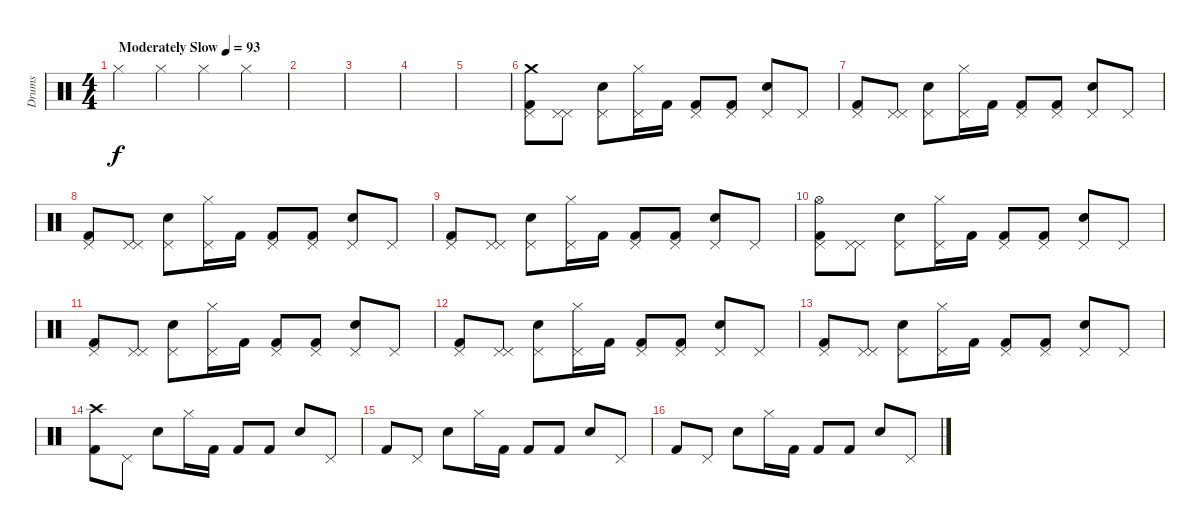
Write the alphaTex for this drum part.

\track ("Drums" "Drums") {instrument percussion}
\staff {score}
\articulation defaults
\ts (4 4)
\tempo (93 "Moderately Slow")
\clef neutral
\ks c "Hi-Hat (closed)".4{dy f} "Hi-Hat (closed)".4 "Hi-Hat (closed)".4 "Hi-Hat (closed)".4
|
|
|
|
|
("Crash medium (hit)" "Pedal Hi-Hat (hit)" "Kick (hit) 2").8 ("Pedal Hi-Hat (hit)" "Pedal Hi-Hat (hit)").8 ("Electric Snare (hit)" "Pedal Hi-Hat (hit)").8 ("Hi-Hat (closed)" "Pedal Hi-Hat (hit)").16 "Kick (hit) 2".16 ("Pedal Hi-Hat (hit)" "Kick (hit) 2").8 ("Pedal Hi-Hat (hit)" "Kick (hit) 2").8 ("Electric Snare (hit)" "Pedal Hi-Hat (hit)").8 "Pedal Hi-Hat (hit)".8 |
("Pedal Hi-Hat (hit)" "Kick (hit) 2").8 ("Pedal Hi-Hat (hit)" "Pedal Hi-Hat (hit)").8 ("Electric Snare (hit)" "Pedal Hi-Hat (hit)").8 ("Hi-Hat (closed)" "Pedal Hi-Hat (hit)").16 "Kick (hit) 2".16 ("Pedal Hi-Hat (hit)" "Kick (hit) 2").8 ("Pedal Hi-Hat (hit)" "Kick (hit) 2").8 ("Electric Snare (hit)" "Pedal Hi-Hat (hit)").8 "Pedal Hi-Hat (hit)".8 |
("Pedal Hi-Hat (hit)" "Kick (hit) 2").8 ("Pedal Hi-Hat (hit)" "Pedal Hi-Hat (hit)").8 ("Electric Snare (hit)" "Pedal Hi-Hat (hit)").8 ("Hi-Hat (closed)" "Pedal Hi-Hat (hit)").16 "Kick (hit) 2".16 ("Pedal Hi-Hat (hit)" "Kick (hit) 2").8 ("Pedal Hi-Hat (hit)" "Kick (hit) 2").8 ("Electric Snare (hit)" "Pedal Hi-Hat (hit)").8 "Pedal Hi-Hat (hit)".8 |
("Pedal Hi-Hat (hit)" "Kick (hit) 2").8 ("Pedal Hi-Hat (hit)" "Pedal Hi-Hat (hit)").8 ("Electric Snare (hit)" "Pedal Hi-Hat (hit)").8 ("Hi-Hat (closed)" "Pedal Hi-Hat (hit)").16 "Kick (hit) 2".16 ("Pedal Hi-Hat (hit)" "Kick (hit) 2").8 ("Pedal Hi-Hat (hit)" "Kick (hit) 2").8 ("Electric Snare (hit)" "Pedal Hi-Hat (hit)").8 "Pedal Hi-Hat (hit)".8 |
("Hi-Hat (open)" "Pedal Hi-Hat (hit)" "Kick (hit) 2").8 ("Pedal Hi-Hat (hit)" "Pedal Hi-Hat (hit)").8 ("Electric Snare (hit)" "Pedal Hi-Hat (hit)").8 ("Hi-Hat (closed)" "Pedal Hi-Hat (hit)").16 "Kick (hit) 2".16 ("Pedal Hi-Hat (hit)" "Kick (hit) 2").8 ("Pedal Hi-Hat (hit)" "Kick (hit) 2").8 ("Electric Snare (hit)" "Pedal Hi-Hat (hit)").8 "Pedal Hi-Hat (hit)".8 |
("Pedal Hi-Hat (hit)" "Kick (hit) 2").8 ("Pedal Hi-Hat (hit)" "Pedal Hi-Hat (hit)").8 ("Electric Snare (hit)" "Pedal Hi-Hat (hit)").8 ("Hi-Hat (closed)" "Pedal Hi-Hat (hit)").16 "Kick (hit) 2".16 ("Pedal Hi-Hat (hit)" "Kick (hit) 2").8 ("Pedal Hi-Hat (hit)" "Kick (hit) 2").8 ("Electric Snare (hit)" "Pedal Hi-Hat (hit)").8 "Pedal Hi-Hat (hit)".8 |
("Pedal Hi-Hat (hit)" "Kick (hit) 2").8 ("Pedal Hi-Hat (hit)" "Pedal Hi-Hat (hit)").8 ("Electric Snare (hit)" "Pedal Hi-Hat (hit)").8 ("Hi-Hat (closed)" "Pedal Hi-Hat (hit)").16 "Kick (hit) 2".16 ("Pedal Hi-Hat (hit)" "Kick (hit) 2").8 ("Pedal Hi-Hat (hit)" "Kick (hit) 2").8 ("Electric Snare (hit)" "Pedal Hi-Hat (hit)").8 "Pedal Hi-Hat (hit)".8 |
("Pedal Hi-Hat (hit)" "Kick (hit) 2").8 ("Pedal Hi-Hat (hit)" "Pedal Hi-Hat (hit)").8 ("Electric Snare (hit)" "Pedal Hi-Hat (hit)").8 ("Hi-Hat (closed)" "Pedal Hi-Hat (hit)").16 "Kick (hit) 2".16 ("Pedal Hi-Hat (hit)" "Kick (hit) 2").8 ("Pedal Hi-Hat (hit)" "Kick (hit) 2").8 ("Electric Snare (hit)" "Pedal Hi-Hat (hit)").8 "Pedal Hi-Hat (hit)".8 |
("Crash high (hit)" "Kick (hit) 2").8 "Pedal Hi-Hat (hit)".8 "Electric Snare (hit)".8 "Hi-Hat (closed)".16 "Kick (hit) 2".16 "Kick (hit) 2".8 "Kick (hit) 2".8 "Electric Snare (hit)".8 "Pedal Hi-Hat (hit)".8 |
"Kick (hit) 2".8 "Pedal Hi-Hat (hit)".8 "Electric Snare (hit)".8 "Hi-Hat (closed)".16 "Kick (hit) 2".16 "Kick (hit) 2".8 "Kick (hit) 2".8 "Electric Snare (hit)".8 "Pedal Hi-Hat (hit)".8 |
"Kick (hit) 2".8 "Pedal Hi-Hat (hit)".8 "Electric Snare (hit)".8 "Hi-Hat (closed)".16 "Kick (hit) 2".16 "Kick (hit) 2".8 "Kick (hit) 2".8 "Electric Snare (hit)".8 "Pedal Hi-Hat (hit)".8
